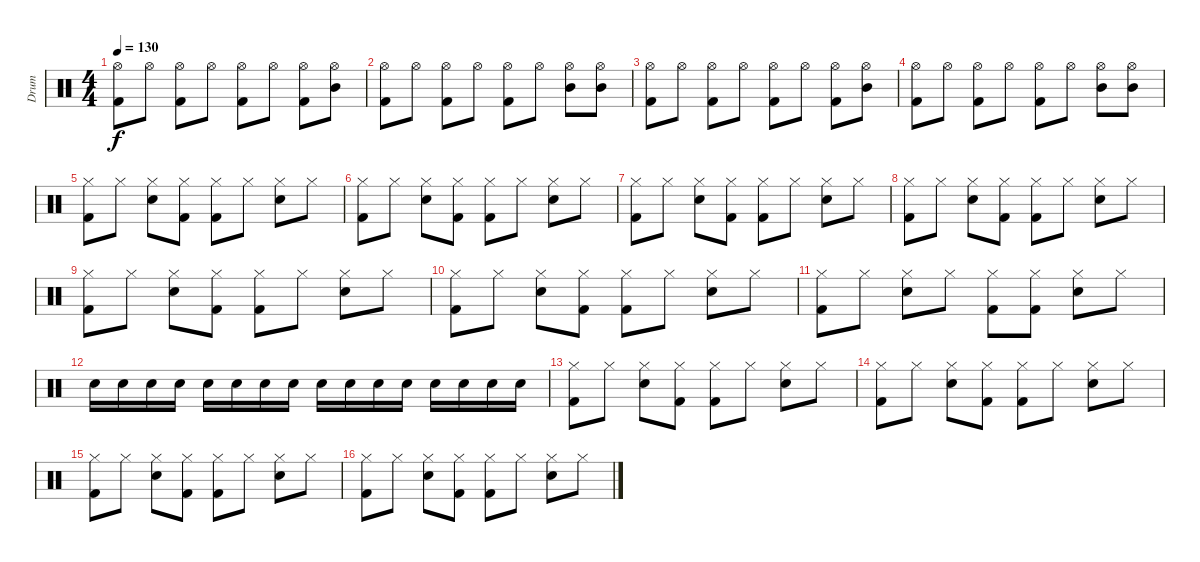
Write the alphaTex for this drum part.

\track ("Drum" "Drum") {instrument percussion}
\staff {score}
\articulation defaults
\ts (4 4)
\tempo 130
\clef neutral
\ks c
("Hi-Hat (open)" "Kick (hit) 2").8{dy f} "Hi-Hat (open)".8 ("Hi-Hat (open)" "Kick (hit) 2").8 "Hi-Hat (open)".8 ("Hi-Hat (open)" "Kick (hit) 2").8 "Hi-Hat (open)".8 ("Hi-Hat (open)" "Kick (hit) 2").8 ("Hi-Hat (open)" "Mid Tom (hit)").8 |
("Hi-Hat (open)" "Kick (hit) 2").8 "Hi-Hat (open)".8 ("Hi-Hat (open)" "Kick (hit) 2").8 "Hi-Hat (open)".8 ("Hi-Hat (open)" "Kick (hit) 2").8 "Hi-Hat (open)".8 ("Hi-Hat (open)" "Mid Tom (hit)").8 ("Hi-Hat (open)" "Mid Tom (hit)").8 |
("Hi-Hat (open)" "Kick (hit) 2").8 "Hi-Hat (open)".8 ("Hi-Hat (open)" "Kick (hit) 2").8 "Hi-Hat (open)".8 ("Hi-Hat (open)" "Kick (hit) 2").8 "Hi-Hat (open)".8 ("Hi-Hat (open)" "Kick (hit) 2").8 ("Hi-Hat (open)" "Mid Tom (hit)").8 |
("Hi-Hat (open)" "Kick (hit) 2").8 "Hi-Hat (open)".8 ("Hi-Hat (open)" "Kick (hit) 2").8 "Hi-Hat (open)".8 ("Hi-Hat (open)" "Kick (hit) 2").8 "Hi-Hat (open)".8 ("Hi-Hat (open)" "Mid Tom (hit)").8 ("Hi-Hat (open)" "Mid Tom (hit)").8 |
("Hi-Hat (closed)" "Kick (hit) 2").8 "Hi-Hat (closed)".8 ("Hi-Hat (closed)" "Electric Snare (hit)").8 ("Hi-Hat (closed)" "Kick (hit) 2").8 ("Hi-Hat (closed)" "Kick (hit) 2").8 "Hi-Hat (closed)".8 ("Hi-Hat (closed)" "Electric Snare (hit)").8 "Hi-Hat (closed)".8 |
("Hi-Hat (closed)" "Kick (hit) 2").8 "Hi-Hat (closed)".8 ("Hi-Hat (closed)" "Electric Snare (hit)").8 ("Hi-Hat (closed)" "Kick (hit) 2").8 ("Hi-Hat (closed)" "Kick (hit) 2").8 "Hi-Hat (closed)".8 ("Hi-Hat (closed)" "Electric Snare (hit)").8 "Hi-Hat (closed)".8 |
("Hi-Hat (closed)" "Kick (hit) 2").8 "Hi-Hat (closed)".8 ("Hi-Hat (closed)" "Electric Snare (hit)").8 ("Hi-Hat (closed)" "Kick (hit) 2").8 ("Hi-Hat (closed)" "Kick (hit) 2").8 "Hi-Hat (closed)".8 ("Hi-Hat (closed)" "Electric Snare (hit)").8 "Hi-Hat (closed)".8 |
("Hi-Hat (closed)" "Kick (hit) 2").8 "Hi-Hat (closed)".8 ("Hi-Hat (closed)" "Electric Snare (hit)").8 ("Hi-Hat (closed)" "Kick (hit) 2").8 ("Hi-Hat (closed)" "Kick (hit) 2").8 "Hi-Hat (closed)".8 ("Hi-Hat (closed)" "Electric Snare (hit)").8 "Hi-Hat (closed)".8 |
("Hi-Hat (closed)" "Kick (hit) 2").8 "Hi-Hat (closed)".8 ("Hi-Hat (closed)" "Electric Snare (hit)").8 ("Hi-Hat (closed)" "Kick (hit) 2").8 ("Hi-Hat (closed)" "Kick (hit) 2").8 "Hi-Hat (closed)".8 ("Hi-Hat (closed)" "Electric Snare (hit)").8 "Hi-Hat (closed)".8 |
("Hi-Hat (closed)" "Kick (hit) 2").8 "Hi-Hat (closed)".8 ("Hi-Hat (closed)" "Electric Snare (hit)").8 ("Hi-Hat (closed)" "Kick (hit) 2").8 ("Hi-Hat (closed)" "Kick (hit) 2").8 "Hi-Hat (closed)".8 ("Hi-Hat (closed)" "Electric Snare (hit)").8 "Hi-Hat (closed)".8 |
("Hi-Hat (closed)" "Kick (hit) 2").8 "Hi-Hat (closed)".8 ("Hi-Hat (closed)" "Electric Snare (hit)").8 "Hi-Hat (closed)".8 ("Hi-Hat (closed)" "Kick (hit) 2").8 ("Hi-Hat (closed)" "Kick (hit) 2").8 ("Hi-Hat (closed)" "Electric Snare (hit)").8 "Hi-Hat (closed)".8 |
"Electric Snare (hit)".16 "Electric Snare (hit)".16 "Electric Snare (hit)".16 "Electric Snare (hit)".16 "Electric Snare (hit)".16 "Electric Snare (hit)".16 "Electric Snare (hit)".16 "Electric Snare (hit)".16 "Electric Snare (hit)".16 "Electric Snare (hit)".16 "Electric Snare (hit)".16 "Electric Snare (hit)".16 "Electric Snare (hit)".16 "Electric Snare (hit)".16 "Electric Snare (hit)".16 "Electric Snare (hit)".16 |
("Hi-Hat (closed)" "Kick (hit) 2").8 "Hi-Hat (closed)".8 ("Hi-Hat (closed)" "Electric Snare (hit)").8 ("Hi-Hat (closed)" "Kick (hit) 2").8 ("Hi-Hat (closed)" "Kick (hit) 2").8 "Hi-Hat (closed)".8 ("Hi-Hat (closed)" "Electric Snare (hit)").8 "Hi-Hat (closed)".8 |
("Hi-Hat (closed)" "Kick (hit) 2").8 "Hi-Hat (closed)".8 ("Hi-Hat (closed)" "Electric Snare (hit)").8 ("Hi-Hat (closed)" "Kick (hit) 2").8 ("Hi-Hat (closed)" "Kick (hit) 2").8 "Hi-Hat (closed)".8 ("Hi-Hat (closed)" "Electric Snare (hit)").8 "Hi-Hat (closed)".8 |
("Hi-Hat (closed)" "Kick (hit) 2").8 "Hi-Hat (closed)".8 ("Hi-Hat (closed)" "Electric Snare (hit)").8 ("Hi-Hat (closed)" "Kick (hit) 2").8 ("Hi-Hat (closed)" "Kick (hit) 2").8 "Hi-Hat (closed)".8 ("Hi-Hat (closed)" "Electric Snare (hit)").8 "Hi-Hat (closed)".8 |
("Hi-Hat (closed)" "Kick (hit) 2").8 "Hi-Hat (closed)".8 ("Hi-Hat (closed)" "Electric Snare (hit)").8 ("Hi-Hat (closed)" "Kick (hit) 2").8 ("Hi-Hat (closed)" "Kick (hit) 2").8 "Hi-Hat (closed)".8 ("Hi-Hat (closed)" "Electric Snare (hit)").8 "Hi-Hat (closed)".8
